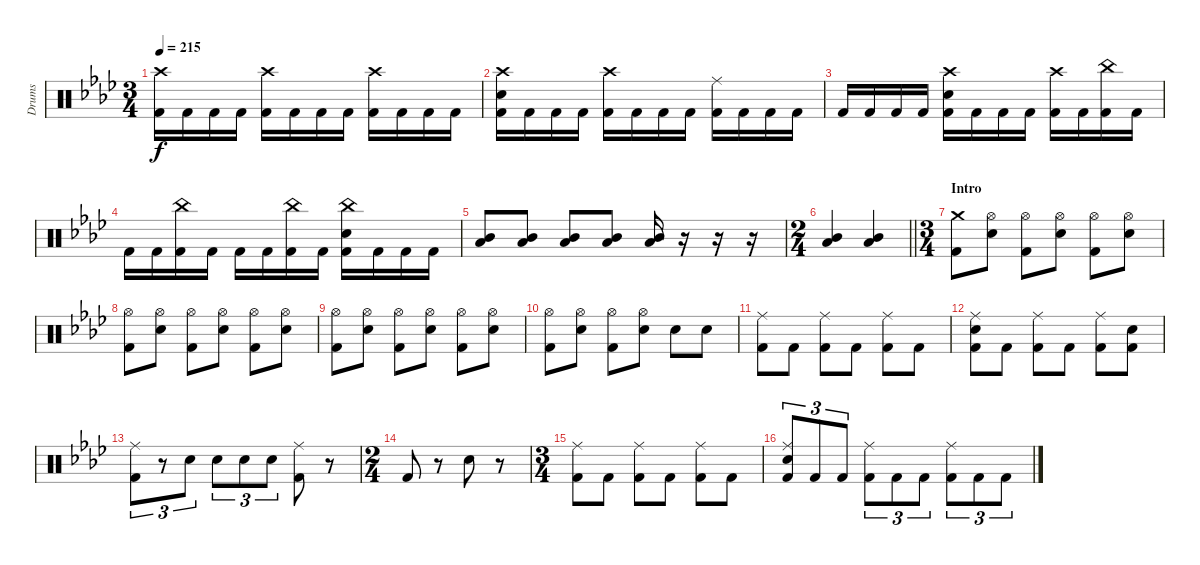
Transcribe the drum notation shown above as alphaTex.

\bracketExtendMode groupsimilarinstruments
\otherSystemsTrackNameOrientation horizontal
\track ("Guyot Begin-Benoit" "Drums") {instrument percussion}
\staff {score}
\articulation defaults
\ts (3 4)
\tempo 215
\clef neutral
\ks ab
("Crash high (hit)"{acc forcenatural} "Kick (hit) 2"{acc forcenatural}).16{dy f beam Down} "Kick (hit) 2"{acc forcenatural}.16{beam Down} "Kick (hit) 2"{acc forcenatural}.16{beam Down} "Kick (hit) 2"{acc forcenatural}.16{beam Down} ("Crash high (hit)"{acc forcenatural} "Kick (hit) 2"{acc forcenatural}).16{beam Down} "Kick (hit) 2"{acc forcenatural}.16{beam Down} "Kick (hit) 2"{acc forcenatural}.16{beam Down} "Kick (hit) 2"{acc forcenatural}.16{beam Down} ("Crash high (hit)"{acc forcenatural} "Kick (hit) 2"{acc forcenatural}).16{beam Down} "Kick (hit) 2"{acc forcenatural}.16{beam Down} "Kick (hit) 2"{acc forcenatural}.16{beam Down} "Kick (hit) 2"{acc forcenatural}.16{beam Down} |
("Crash high (hit)"{acc forcenatural} "Snare (hit) 2"{acc forcenatural} "Kick (hit) 2"{acc forcenatural}).16{beam Down} "Kick (hit) 2"{acc forcenatural}.16{beam Down} "Kick (hit) 2"{acc forcenatural}.16{beam Down} "Kick (hit) 2"{acc forcenatural}.16{beam Down} ("Crash high (hit)"{acc forcenatural} "Kick (hit) 2"{acc forcenatural}).16{beam Down} "Kick (hit) 2"{acc forcenatural}.16{beam Down} "Kick (hit) 2"{acc forcenatural}.16{beam Down} "Kick (hit) 2"{acc forcenatural}.16{beam Down} ("Ride (middle)"{acc forcenatural} "Kick (hit) 2"{acc forcenatural}).16{beam Down} "Kick (hit) 2"{acc forcenatural}.16{beam Down} "Kick (hit) 2"{acc forcenatural}.16{beam Down} "Kick (hit) 2"{acc forcenatural}.16{beam Down} |
"Kick (hit) 2"{acc forcenatural}.16{beam Up} "Kick (hit) 2"{acc forcenatural}.16{beam Up} "Kick (hit) 2"{acc forcenatural}.16{beam Up} "Kick (hit) 2"{acc forcenatural}.16{beam Up} ("Crash high (hit)"{acc forcenatural} "Snare (hit) 2"{acc forcenatural} "Kick (hit) 2"{acc forcenatural}).16{beam Down} "Kick (hit) 2"{acc forcenatural}.16{beam Down} "Kick (hit) 2"{acc forcenatural}.16{beam Down} "Kick (hit) 2"{acc forcenatural}.16{beam Down} ("Crash high (hit)"{acc forcenatural} "Kick (hit) 2"{acc forcenatural}).16{beam Down} "Kick (hit) 2"{acc forcenatural}.16{beam Down} ("China (hit)"{acc forcenatural} "Kick (hit) 2"{acc forcenatural}).16{beam Down} "Kick (hit) 2"{acc forcenatural}.16{beam Down} |
"Kick (hit) 2"{acc forcenatural}.16{beam Down} "Kick (hit) 2"{acc forcenatural}.16{beam Down} ("China (hit)"{acc forcenatural} "Kick (hit) 2"{acc forcenatural}).16{beam Down} "Kick (hit) 2"{acc forcenatural}.16{beam Down} "Kick (hit) 2"{acc forcenatural}.16{beam Down} "Kick (hit) 2"{acc forcenatural}.16{beam Down} ("China (hit)"{acc forcenatural} "Kick (hit) 2"{acc forcenatural}).16{beam Down} "Kick (hit) 2"{acc forcenatural}.16{beam Down} ("China (hit)"{acc forcenatural} "Snare (hit) 2"{acc forcenatural} "Kick (hit) 2"{acc forcenatural}).16{beam Down} "Kick (hit) 2"{acc forcenatural}.16{beam Down} "Kick (hit) 2"{acc forcenatural}.16{beam Down} "Kick (hit) 2"{acc forcenatural}.16{beam Down} |
("Low Tom (hit)"{acc forcenatural} "Mid Tom (hit)"{acc forcenatural}).8{beam Up} ("Low Tom (hit)"{acc forcenatural} "Mid Tom (hit)"{acc forcenatural}).8{beam Up} ("Low Tom (hit)"{acc forcenatural} "Mid Tom (hit)"{acc forcenatural}).8{beam Up} ("Low Tom (hit)"{acc forcenatural} "Mid Tom (hit)"{acc forcenatural}).8{beam Up} ("Low Tom (hit)"{acc forcenatural} "Mid Tom (hit)"{acc forcenatural}).16{beam Up} r.16{beam Up} r.16{beam Up} r.16{beam Up} |
\ts (2 4)
\beaming (8 2 2 2 2)
\barLineRight lightlight
("Low Tom (hit)"{acc forcenatural} "Mid Tom (hit)"{acc forcenatural}).4{beam Up} ("Low Tom (hit)"{acc forcenatural} "Mid Tom (hit)"{acc forcenatural}).4{beam Up} |
\ts (3 4)
\beaming (8 2 2 2 2)
\section ("" "Intro")
("Crash medium (hit)"{acc forcenatural} "Kick (hit) 2"{acc forcenatural}).8{beam Down} ("Hi-Hat (open)"{acc forcenatural} "Snare (hit) 2"{acc forcenatural}).8{beam Down} ("Hi-Hat (open)"{acc forcenatural} "Kick (hit) 2"{acc forcenatural}).8{beam Down} ("Hi-Hat (open)"{acc forcenatural} "Snare (hit) 2"{acc forcenatural}).8{beam Down} ("Hi-Hat (open)"{acc forcenatural} "Kick (hit) 2"{acc forcenatural}).8{beam Down} ("Hi-Hat (open)"{acc forcenatural} "Snare (hit) 2"{acc forcenatural}).8{beam Down} |
("Hi-Hat (open)"{acc forcenatural} "Kick (hit) 2"{acc forcenatural}).8{beam Down} ("Hi-Hat (open)"{acc forcenatural} "Snare (hit) 2"{acc forcenatural}).8{beam Down} ("Hi-Hat (open)"{acc forcenatural} "Kick (hit) 2"{acc forcenatural}).8{beam Down} ("Hi-Hat (open)"{acc forcenatural} "Snare (hit) 2"{acc forcenatural}).8{beam Down} ("Hi-Hat (open)"{acc forcenatural} "Kick (hit) 2"{acc forcenatural}).8{beam Down} ("Hi-Hat (open)"{acc forcenatural} "Snare (hit) 2"{acc forcenatural}).8{beam Down} |
("Hi-Hat (open)"{acc forcenatural} "Kick (hit) 2"{acc forcenatural}).8{beam Down} ("Hi-Hat (open)"{acc forcenatural} "Snare (hit) 2"{acc forcenatural}).8{beam Down} ("Hi-Hat (open)"{acc forcenatural} "Kick (hit) 2"{acc forcenatural}).8{beam Down} ("Hi-Hat (open)"{acc forcenatural} "Snare (hit) 2"{acc forcenatural}).8{beam Down} ("Hi-Hat (open)"{acc forcenatural} "Kick (hit) 2"{acc forcenatural}).8{beam Down} ("Hi-Hat (open)"{acc forcenatural} "Snare (hit) 2"{acc forcenatural}).8{beam Down} |
("Hi-Hat (open)"{acc forcenatural} "Kick (hit) 2"{acc forcenatural}).8{beam Down} ("Hi-Hat (open)"{acc forcenatural} "Snare (hit) 2"{acc forcenatural}).8{beam Down} ("Hi-Hat (open)"{acc forcenatural} "Kick (hit) 2"{acc forcenatural}).8{beam Down} ("Hi-Hat (open)"{acc forcenatural} "Snare (hit) 2"{acc forcenatural}).8{beam Down} "Snare (hit) 2"{acc forcenatural}.8{beam Down} "Snare (hit) 2"{acc forcenatural}.8{beam Down} |
("Ride (middle)"{acc forcenatural} "Kick (hit) 2"{acc forcenatural}).8{beam Down} "Kick (hit) 2"{acc forcenatural}.8{beam Down} ("Ride (middle)"{acc forcenatural} "Kick (hit) 2"{acc forcenatural}).8{beam Down} "Kick (hit) 2"{acc forcenatural}.8{beam Down} ("Ride (middle)"{acc forcenatural} "Kick (hit) 2"{acc forcenatural}).8{beam Down} "Kick (hit) 2"{acc forcenatural}.8{beam Down} |
("Ride (middle)"{acc forcenatural} "Snare (hit) 2"{acc forcenatural} "Kick (hit) 2"{acc forcenatural}).8{beam Down} "Kick (hit) 2"{acc forcenatural}.8{beam Down} ("Ride (middle)"{acc forcenatural} "Kick (hit) 2"{acc forcenatural}).8{beam Down} "Kick (hit) 2"{acc forcenatural}.8{beam Down} ("Ride (middle)"{acc forcenatural} "Kick (hit) 2"{acc forcenatural}).8{beam Down} ("Snare (hit) 2"{acc forcenatural} "Kick (hit) 2"{acc forcenatural}).8{beam Down} |
("Ride (middle)"{acc forcenatural} "Kick (hit) 2"{acc forcenatural}).8{tu (3 2) beam Down} r.8{tu (3 2) beam Down} "Snare (hit) 2"{acc forcenatural}.8{tu (3 2) beam Down} "Snare (hit) 2"{acc forcenatural}.8{tu (3 2) beam Down} "Snare (hit) 2"{acc forcenatural}.8{tu (3 2) beam Down} "Snare (hit) 2"{acc forcenatural}.8{tu (3 2) beam Down} ("Ride (middle)"{acc forcenatural} "Kick (hit) 2"{acc forcenatural}).8{beam Down} r.8{beam Down} |
\ts (2 4)
\beaming (8 2 2 2 2)
"Kick (hit) 2"{acc forcenatural}.8{beam Up} r.8{beam Up} "Snare (hit) 2"{acc forcenatural}.8{beam Down} r.8{beam Down} |
\ts (3 4)
\beaming (8 2 2 2 2)
("Ride (middle)"{acc forcenatural} "Kick (hit) 2"{acc forcenatural}).8{beam Down} "Kick (hit) 2"{acc forcenatural}.8{beam Down} ("Ride (middle)"{acc forcenatural} "Kick (hit) 2"{acc forcenatural}).8{beam Down} "Kick (hit) 2"{acc forcenatural}.8{beam Down} ("Ride (middle)"{acc forcenatural} "Kick (hit) 2"{acc forcenatural}).8{beam Down} "Kick (hit) 2"{acc forcenatural}.8{beam Down} |
("Ride (middle)"{acc forcenatural} "Snare (hit) 2"{acc forcenatural} "Kick (hit) 2"{acc forcenatural}).8{tu (3 2) beam Up} "Kick (hit) 2"{acc forcenatural}.8{tu (3 2) beam Up} "Kick (hit) 2"{acc forcenatural}.8{tu (3 2) beam Up} ("Ride (middle)"{acc forcenatural} "Kick (hit) 2"{acc forcenatural}).8{tu (3 2) beam Down} "Kick (hit) 2"{acc forcenatural}.8{tu (3 2) beam Down} "Kick (hit) 2"{acc forcenatural}.8{tu (3 2) beam Down} ("Ride (middle)"{acc forcenatural} "Kick (hit) 2"{acc forcenatural}).8{tu (3 2) beam Down} "Kick (hit) 2"{acc forcenatural}.8{tu (3 2) beam Down} "Kick (hit) 2"{acc forcenatural}.8{tu (3 2) beam Down}
